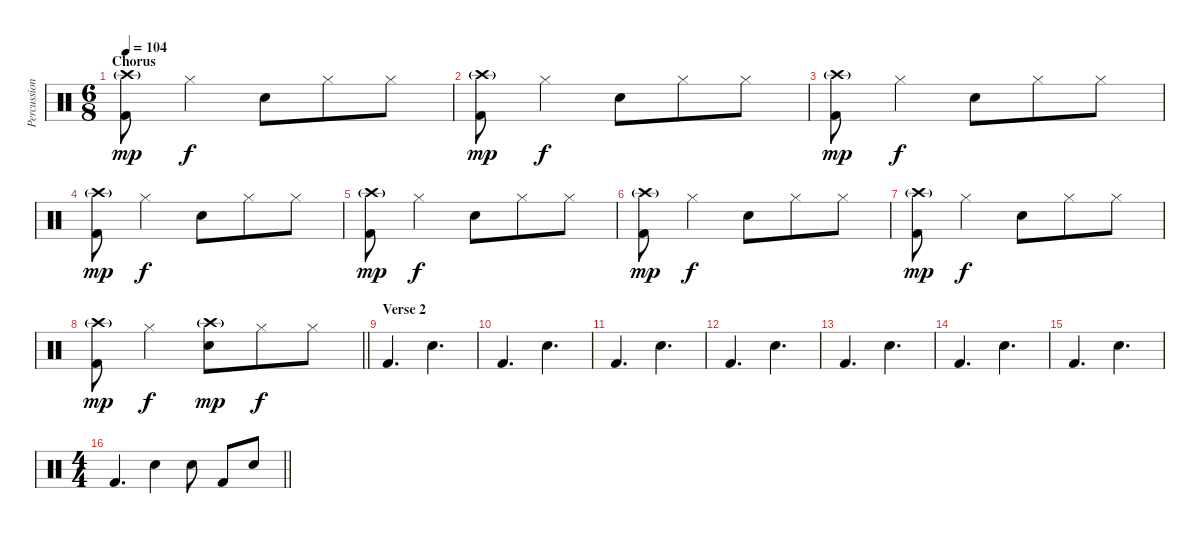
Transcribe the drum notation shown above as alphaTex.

\track ("Percussion" "Percussion") {instrument percussion}
\staff {score}
\articulation defaults
\ts (6 8)
\section ("" "Chorus")
\tempo 104
\clef neutral
\ks c
("Crash high (hit)"{g} "Kick (hit) 2").8{dy mp} "Hi-Hat (closed)".4{dy f} "Snare (hit) 2".8 "Hi-Hat (closed)".8 "Hi-Hat (closed)".8 |
("Crash high (hit)"{g} "Kick (hit) 2").8{dy mp} "Hi-Hat (closed)".4{dy f} "Snare (hit) 2".8 "Hi-Hat (closed)".8 "Hi-Hat (closed)".8 |
("Crash high (hit)"{g} "Kick (hit) 2").8{dy mp} "Hi-Hat (closed)".4{dy f} "Snare (hit) 2".8 "Hi-Hat (closed)".8 "Hi-Hat (closed)".8 |
("Crash high (hit)"{g} "Kick (hit) 2").8{dy mp} "Hi-Hat (closed)".4{dy f} "Snare (hit) 2".8 "Hi-Hat (closed)".8 "Hi-Hat (closed)".8 |
("Crash high (hit)"{g} "Kick (hit) 2").8{dy mp} "Hi-Hat (closed)".4{dy f} "Snare (hit) 2".8 "Hi-Hat (closed)".8 "Hi-Hat (closed)".8 |
("Crash high (hit)"{g} "Kick (hit) 2").8{dy mp} "Hi-Hat (closed)".4{dy f} "Snare (hit) 2".8 "Hi-Hat (closed)".8 "Hi-Hat (closed)".8 |
("Crash high (hit)"{g} "Kick (hit) 2").8{dy mp} "Hi-Hat (closed)".4{dy f} "Snare (hit) 2".8 "Hi-Hat (closed)".8 "Hi-Hat (closed)".8 |
\barLineRight lightlight
("Crash high (hit)"{g} "Kick (hit) 2").8{dy mp} "Hi-Hat (closed)".4{dy f} ("Crash high (hit)"{g} "Snare (hit) 2").8{dy mp} "Hi-Hat (closed)".8{dy f} "Hi-Hat (closed)".8 |
\section ("" "Verse 2")
"Kick (hit) 2".4{d} "Snare (hit) 2".4{d} |
"Kick (hit) 2".4{d} "Snare (hit) 2".4{d} |
"Kick (hit) 2".4{d} "Snare (hit) 2".4{d} |
"Kick (hit) 2".4{d} "Snare (hit) 2".4{d} |
"Kick (hit) 2".4{d} "Snare (hit) 2".4{d} |
"Kick (hit) 2".4{d} "Snare (hit) 2".4{d} |
"Kick (hit) 2".4{d} "Snare (hit) 2".4{d} |
\ts (4 4)
\barLineRight lightlight "Kick (hit) 2".4{d} "Snare (hit) 2".4 "Snare (hit) 2".8 "Kick (hit) 2".8 "Snare (hit) 2".8
